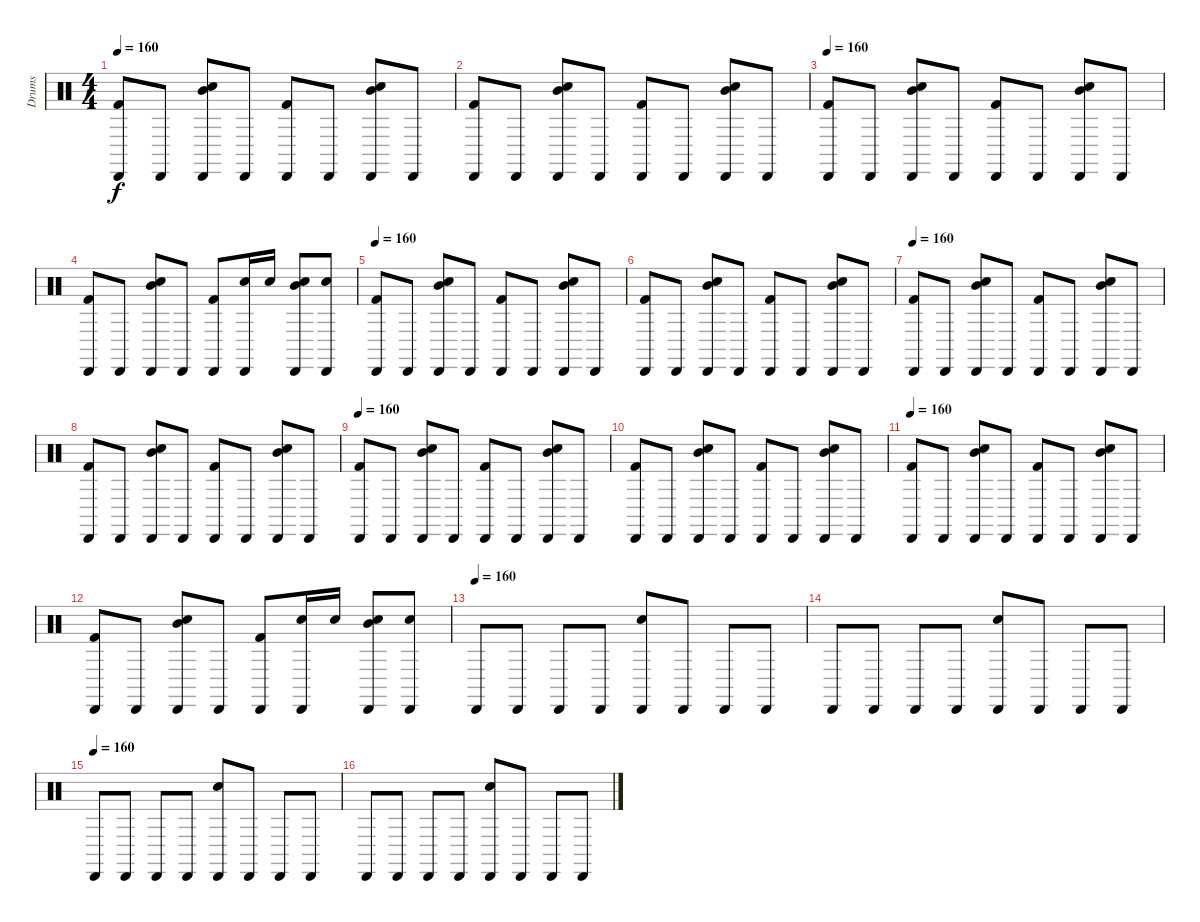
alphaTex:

\track ("Drums" "Drums") {instrument percussion}
\staff {score}
\articulation defaults
\ts (4 4)
\tempo 160
\clef neutral
\ks c
("Kick (hit) 2" "Cabasa (hit)").8{dy f} "Cabasa (hit)".8 ("Electric Snare (hit)" "Mid Tom (hit)" "Cabasa (hit)").8 "Cabasa (hit)".8 ("Cabasa (hit)" "Kick (hit) 2").8 "Cabasa (hit)".8 ("Cabasa (hit)" "Electric Snare (hit)" "Mid Tom (hit)").8 "Cabasa (hit)".8 |
("Cabasa (hit)" "Kick (hit) 2").8 "Cabasa (hit)".8 ("Electric Snare (hit)" "Cabasa (hit)" "Mid Tom (hit)").8 "Cabasa (hit)".8 ("Cabasa (hit)" "Kick (hit) 2").8 "Cabasa (hit)".8 ("Mid Tom (hit)" "Electric Snare (hit)" "Cabasa (hit)").8 "Cabasa (hit)".8 |
\tempo 160
("Kick (hit) 2" "Cabasa (hit)").8 "Cabasa (hit)".8 ("Electric Snare (hit)" "Mid Tom (hit)" "Cabasa (hit)").8 "Cabasa (hit)".8 ("Cabasa (hit)" "Kick (hit) 2").8 "Cabasa (hit)".8 ("Cabasa (hit)" "Electric Snare (hit)" "Mid Tom (hit)").8 "Cabasa (hit)".8 |
("Cabasa (hit)" "Kick (hit) 2").8 "Cabasa (hit)".8 ("Electric Snare (hit)" "Cabasa (hit)" "Mid Tom (hit)").8 "Cabasa (hit)".8 ("Cabasa (hit)" "Kick (hit) 2").8 ("Electric Snare (hit)" "Cabasa (hit)").16 "Electric Snare (hit)".16 ("Electric Snare (hit)" "Mid Tom (hit)" "Cabasa (hit)").8 ("Electric Snare (hit)" "Cabasa (hit)").8 |
\tempo 160
("Kick (hit) 2" "Cabasa (hit)").8 "Cabasa (hit)".8 ("Electric Snare (hit)" "Mid Tom (hit)" "Cabasa (hit)").8 "Cabasa (hit)".8 ("Cabasa (hit)" "Kick (hit) 2").8 "Cabasa (hit)".8 ("Cabasa (hit)" "Electric Snare (hit)" "Mid Tom (hit)").8 "Cabasa (hit)".8 |
("Cabasa (hit)" "Kick (hit) 2").8 "Cabasa (hit)".8 ("Electric Snare (hit)" "Cabasa (hit)" "Mid Tom (hit)").8 "Cabasa (hit)".8 ("Cabasa (hit)" "Kick (hit) 2").8 "Cabasa (hit)".8 ("Mid Tom (hit)" "Electric Snare (hit)" "Cabasa (hit)").8 "Cabasa (hit)".8 |
\tempo 160
("Kick (hit) 2" "Cabasa (hit)").8 "Cabasa (hit)".8 ("Electric Snare (hit)" "Mid Tom (hit)" "Cabasa (hit)").8 "Cabasa (hit)".8 ("Cabasa (hit)" "Kick (hit) 2").8 "Cabasa (hit)".8 ("Cabasa (hit)" "Electric Snare (hit)" "Mid Tom (hit)").8 "Cabasa (hit)".8 |
("Cabasa (hit)" "Kick (hit) 2").8 "Cabasa (hit)".8 ("Electric Snare (hit)" "Cabasa (hit)" "Mid Tom (hit)").8 "Cabasa (hit)".8 ("Cabasa (hit)" "Kick (hit) 2").8 "Cabasa (hit)".8 ("Mid Tom (hit)" "Electric Snare (hit)" "Cabasa (hit)").8 "Cabasa (hit)".8 |
\tempo 160
("Kick (hit) 2" "Cabasa (hit)").8 "Cabasa (hit)".8 ("Electric Snare (hit)" "Mid Tom (hit)" "Cabasa (hit)").8 "Cabasa (hit)".8 ("Cabasa (hit)" "Kick (hit) 2").8 "Cabasa (hit)".8 ("Cabasa (hit)" "Electric Snare (hit)" "Mid Tom (hit)").8 "Cabasa (hit)".8 |
("Cabasa (hit)" "Kick (hit) 2").8 "Cabasa (hit)".8 ("Electric Snare (hit)" "Cabasa (hit)" "Mid Tom (hit)").8 "Cabasa (hit)".8 ("Cabasa (hit)" "Kick (hit) 2").8 "Cabasa (hit)".8 ("Mid Tom (hit)" "Electric Snare (hit)" "Cabasa (hit)").8 "Cabasa (hit)".8 |
\tempo 160
("Kick (hit) 2" "Cabasa (hit)").8 "Cabasa (hit)".8 ("Electric Snare (hit)" "Mid Tom (hit)" "Cabasa (hit)").8 "Cabasa (hit)".8 ("Cabasa (hit)" "Kick (hit) 2").8 "Cabasa (hit)".8 ("Cabasa (hit)" "Electric Snare (hit)" "Mid Tom (hit)").8 "Cabasa (hit)".8 |
("Cabasa (hit)" "Kick (hit) 2").8 "Cabasa (hit)".8 ("Electric Snare (hit)" "Cabasa (hit)" "Mid Tom (hit)").8 "Cabasa (hit)".8 ("Cabasa (hit)" "Kick (hit) 2").8 ("Electric Snare (hit)" "Cabasa (hit)").16 "Electric Snare (hit)".16 ("Electric Snare (hit)" "Mid Tom (hit)" "Cabasa (hit)").8 ("Electric Snare (hit)" "Cabasa (hit)").8 |
\tempo (160)
"Cabasa (hit)".8 "Cabasa (hit)".8 "Cabasa (hit)".8 "Cabasa (hit)".8 ("Electric Snare (hit)" "Cabasa (hit)").8 "Cabasa (hit)".8 "Cabasa (hit)".8 "Cabasa (hit)".8 |
"Cabasa (hit)".8 "Cabasa (hit)".8 "Cabasa (hit)".8 "Cabasa (hit)".8 ("Electric Snare (hit)" "Cabasa (hit)").8 "Cabasa (hit)".8 "Cabasa (hit)".8 "Cabasa (hit)".8 |
\tempo (160)
"Cabasa (hit)".8 "Cabasa (hit)".8 "Cabasa (hit)".8 "Cabasa (hit)".8 ("Electric Snare (hit)" "Cabasa (hit)").8 "Cabasa (hit)".8 "Cabasa (hit)".8 "Cabasa (hit)".8 |
"Cabasa (hit)".8 "Cabasa (hit)".8 "Cabasa (hit)".8 "Cabasa (hit)".8 ("Electric Snare (hit)" "Cabasa (hit)").8 "Cabasa (hit)".8 "Cabasa (hit)".8 "Cabasa (hit)".8
